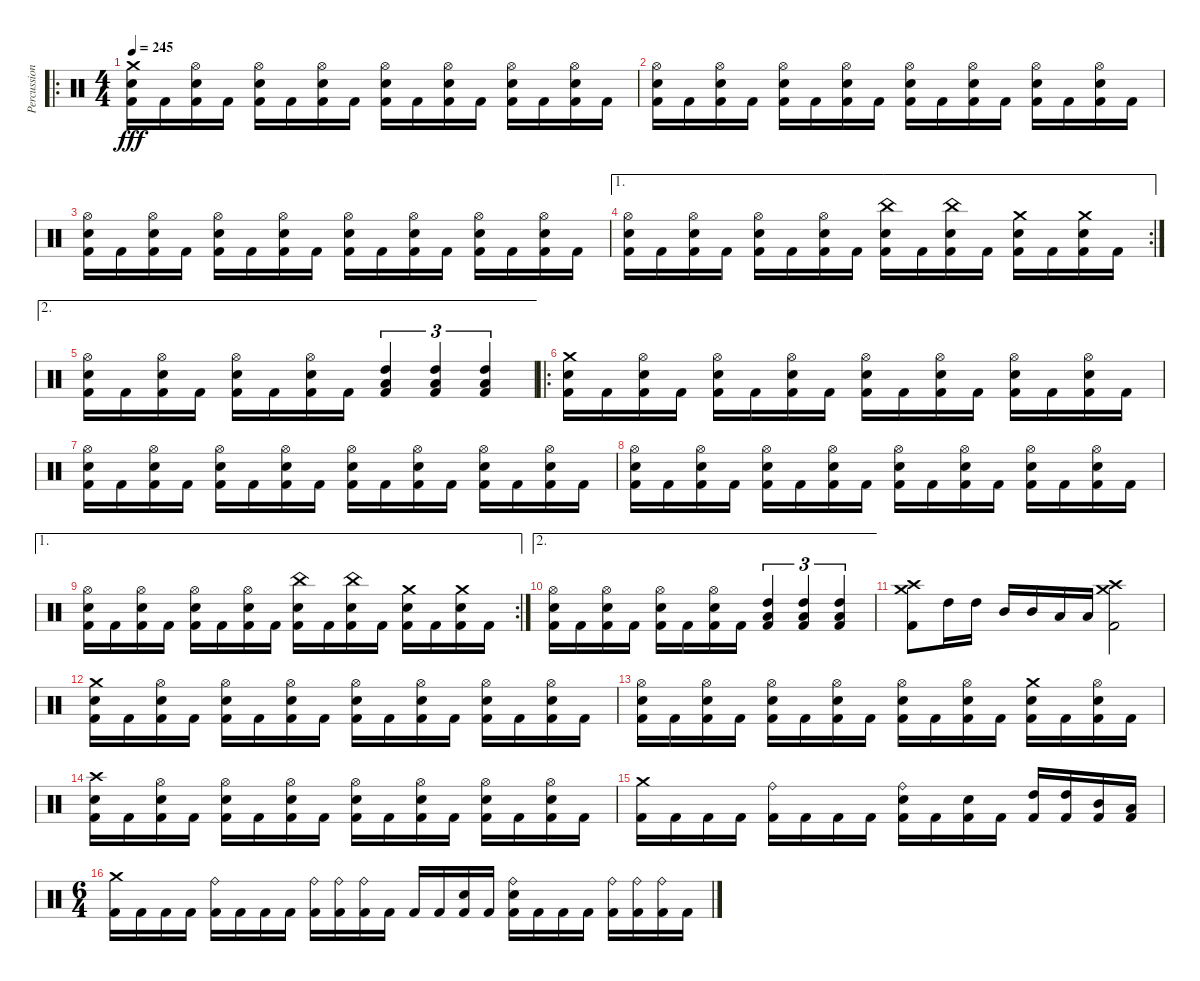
\track ("Percussion" "Percussion") {instrument percussion bank 177}
\staff {score}
\articulation defaults
\ro
\ts (4 4)
\tempo 245
\clef neutral
\ks c
("Crash medium (hit)" "Electric Snare (hit)" "Kick (hit) 2").16{dy fff} "Kick (hit) 2".16 ("Hi-Hat (open)" "Electric Snare (hit)" "Kick (hit) 2").16 "Kick (hit) 2".16 ("Hi-Hat (open)" "Electric Snare (hit)" "Kick (hit) 2").16 "Kick (hit) 2".16 ("Hi-Hat (open)" "Electric Snare (hit)" "Kick (hit) 2").16 "Kick (hit) 2".16 ("Hi-Hat (open)" "Electric Snare (hit)" "Kick (hit) 2").16 "Kick (hit) 2".16 ("Hi-Hat (open)" "Electric Snare (hit)" "Kick (hit) 2").16 "Kick (hit) 2".16 ("Hi-Hat (open)" "Electric Snare (hit)" "Kick (hit) 2").16 "Kick (hit) 2".16 ("Hi-Hat (open)" "Electric Snare (hit)" "Kick (hit) 2").16 "Kick (hit) 2".16 |
("Hi-Hat (open)" "Electric Snare (hit)" "Kick (hit) 2").16 "Kick (hit) 2".16 ("Hi-Hat (open)" "Electric Snare (hit)" "Kick (hit) 2").16 "Kick (hit) 2".16 ("Hi-Hat (open)" "Electric Snare (hit)" "Kick (hit) 2").16 "Kick (hit) 2".16 ("Hi-Hat (open)" "Electric Snare (hit)" "Kick (hit) 2").16 "Kick (hit) 2".16 ("Hi-Hat (open)" "Electric Snare (hit)" "Kick (hit) 2").16 "Kick (hit) 2".16 ("Hi-Hat (open)" "Electric Snare (hit)" "Kick (hit) 2").16 "Kick (hit) 2".16 ("Hi-Hat (open)" "Electric Snare (hit)" "Kick (hit) 2").16 "Kick (hit) 2".16 ("Hi-Hat (open)" "Electric Snare (hit)" "Kick (hit) 2").16 "Kick (hit) 2".16 |
("Hi-Hat (open)" "Electric Snare (hit)" "Kick (hit) 2").16 "Kick (hit) 2".16 ("Hi-Hat (open)" "Electric Snare (hit)" "Kick (hit) 2").16 "Kick (hit) 2".16 ("Hi-Hat (open)" "Electric Snare (hit)" "Kick (hit) 2").16 "Kick (hit) 2".16 ("Hi-Hat (open)" "Electric Snare (hit)" "Kick (hit) 2").16 "Kick (hit) 2".16 ("Hi-Hat (open)" "Electric Snare (hit)" "Kick (hit) 2").16 "Kick (hit) 2".16 ("Hi-Hat (open)" "Electric Snare (hit)" "Kick (hit) 2").16 "Kick (hit) 2".16 ("Hi-Hat (open)" "Electric Snare (hit)" "Kick (hit) 2").16 "Kick (hit) 2".16 ("Hi-Hat (open)" "Electric Snare (hit)" "Kick (hit) 2").16 "Kick (hit) 2".16 |
\ae 1
\rc 2
("Hi-Hat (open)" "Electric Snare (hit)" "Kick (hit) 2").16 "Kick (hit) 2".16 ("Hi-Hat (open)" "Electric Snare (hit)" "Kick (hit) 2").16 "Kick (hit) 2".16 ("Hi-Hat (open)" "Electric Snare (hit)" "Kick (hit) 2").16 "Kick (hit) 2".16 ("Hi-Hat (open)" "Electric Snare (hit)" "Kick (hit) 2").16 "Kick (hit) 2".16 ("China (hit)" "Electric Snare (hit)" "Kick (hit) 2").16 "Kick (hit) 2".16 ("China (hit)" "Electric Snare (hit)" "Kick (hit) 2").16 "Kick (hit) 2".16 ("Crash medium (hit)" "Electric Snare (hit)" "Kick (hit) 2").16 "Kick (hit) 2".16 ("Crash medium (hit)" "Electric Snare (hit)" "Kick (hit) 2").16 "Kick (hit) 2".16 |
\ae 2
("Hi-Hat (open)" "Electric Snare (hit)" "Kick (hit) 2").16 "Kick (hit) 2".16 ("Hi-Hat (open)" "Electric Snare (hit)" "Kick (hit) 2").16 "Kick (hit) 2".16 ("Hi-Hat (open)" "Electric Snare (hit)" "Kick (hit) 2").16 "Kick (hit) 2".16 ("Hi-Hat (open)" "Electric Snare (hit)" "Kick (hit) 2").16 "Kick (hit) 2".16 ("Low Tom (hit)" "Kick (hit) 2" "High Tom (hit)").4{tu (3 2)} ("Low Tom (hit)" "Kick (hit) 2" "High Tom (hit)").4{tu (3 2)} ("Low Tom (hit)" "Kick (hit) 2" "High Tom (hit)").4{tu (3 2)} |
\ro
("Crash medium (hit)" "Electric Snare (hit)" "Kick (hit) 2").16 "Kick (hit) 2".16 ("Hi-Hat (open)" "Electric Snare (hit)" "Kick (hit) 2").16 "Kick (hit) 2".16 ("Hi-Hat (open)" "Electric Snare (hit)" "Kick (hit) 2").16 "Kick (hit) 2".16 ("Hi-Hat (open)" "Electric Snare (hit)" "Kick (hit) 2").16 "Kick (hit) 2".16 ("Hi-Hat (open)" "Electric Snare (hit)" "Kick (hit) 2").16 "Kick (hit) 2".16 ("Hi-Hat (open)" "Electric Snare (hit)" "Kick (hit) 2").16 "Kick (hit) 2".16 ("Hi-Hat (open)" "Electric Snare (hit)" "Kick (hit) 2").16 "Kick (hit) 2".16 ("Hi-Hat (open)" "Electric Snare (hit)" "Kick (hit) 2").16 "Kick (hit) 2".16 |
("Hi-Hat (open)" "Electric Snare (hit)" "Kick (hit) 2").16 "Kick (hit) 2".16 ("Hi-Hat (open)" "Electric Snare (hit)" "Kick (hit) 2").16 "Kick (hit) 2".16 ("Hi-Hat (open)" "Electric Snare (hit)" "Kick (hit) 2").16 "Kick (hit) 2".16 ("Hi-Hat (open)" "Electric Snare (hit)" "Kick (hit) 2").16 "Kick (hit) 2".16 ("Hi-Hat (open)" "Electric Snare (hit)" "Kick (hit) 2").16 "Kick (hit) 2".16 ("Hi-Hat (open)" "Electric Snare (hit)" "Kick (hit) 2").16 "Kick (hit) 2".16 ("Hi-Hat (open)" "Electric Snare (hit)" "Kick (hit) 2").16 "Kick (hit) 2".16 ("Hi-Hat (open)" "Electric Snare (hit)" "Kick (hit) 2").16 "Kick (hit) 2".16 |
("Hi-Hat (open)" "Electric Snare (hit)" "Kick (hit) 2").16 "Kick (hit) 2".16 ("Hi-Hat (open)" "Electric Snare (hit)" "Kick (hit) 2").16 "Kick (hit) 2".16 ("Hi-Hat (open)" "Electric Snare (hit)" "Kick (hit) 2").16 "Kick (hit) 2".16 ("Hi-Hat (open)" "Electric Snare (hit)" "Kick (hit) 2").16 "Kick (hit) 2".16 ("Hi-Hat (open)" "Electric Snare (hit)" "Kick (hit) 2").16 "Kick (hit) 2".16 ("Hi-Hat (open)" "Electric Snare (hit)" "Kick (hit) 2").16 "Kick (hit) 2".16 ("Hi-Hat (open)" "Electric Snare (hit)" "Kick (hit) 2").16 "Kick (hit) 2".16 ("Hi-Hat (open)" "Electric Snare (hit)" "Kick (hit) 2").16 "Kick (hit) 2".16 |
\ae 1
\rc 2
("Hi-Hat (open)" "Electric Snare (hit)" "Kick (hit) 2").16 "Kick (hit) 2".16 ("Hi-Hat (open)" "Electric Snare (hit)" "Kick (hit) 2").16 "Kick (hit) 2".16 ("Hi-Hat (open)" "Electric Snare (hit)" "Kick (hit) 2").16 "Kick (hit) 2".16 ("Hi-Hat (open)" "Electric Snare (hit)" "Kick (hit) 2").16 "Kick (hit) 2".16 ("China (hit)" "Electric Snare (hit)" "Kick (hit) 2").16 "Kick (hit) 2".16 ("China (hit)" "Electric Snare (hit)" "Kick (hit) 2").16 "Kick (hit) 2".16 ("Crash medium (hit)" "Electric Snare (hit)" "Kick (hit) 2").16 "Kick (hit) 2".16 ("Crash medium (hit)" "Electric Snare (hit)" "Kick (hit) 2").16 "Kick (hit) 2".16 |
\ae 2
("Hi-Hat (open)" "Electric Snare (hit)" "Kick (hit) 2").16 "Kick (hit) 2".16 ("Hi-Hat (open)" "Electric Snare (hit)" "Kick (hit) 2").16 "Kick (hit) 2".16 ("Hi-Hat (open)" "Electric Snare (hit)" "Kick (hit) 2").16 "Kick (hit) 2".16 ("Hi-Hat (open)" "Electric Snare (hit)" "Kick (hit) 2").16 "Kick (hit) 2".16 ("Low Tom (hit)" "Kick (hit) 2" "High Tom (hit)").4{tu (3 2)} ("Low Tom (hit)" "Kick (hit) 2" "High Tom (hit)").4{tu (3 2)} ("Low Tom (hit)" "Kick (hit) 2" "High Tom (hit)").4{tu (3 2)} |
("Crash medium (hit)" "Crash high (hit)" "Kick (hit) 2").8 "High Tom (hit)".16 "High Tom (hit)".16 "Mid Tom (hit)".16 "Mid Tom (hit)".16 "Low Tom (hit)".16 "Low Tom (hit)".16 ("Crash medium (hit)" "Crash high (hit)" "Kick (hit) 2").2 |
("Crash medium (hit)" "Electric Snare (hit)" "Kick (hit) 2").16 "Kick (hit) 2".16 ("Hi-Hat (open)" "Electric Snare (hit)" "Kick (hit) 2").16 "Kick (hit) 2".16 ("Hi-Hat (open)" "Electric Snare (hit)" "Kick (hit) 2").16 "Kick (hit) 2".16 ("Hi-Hat (open)" "Electric Snare (hit)" "Kick (hit) 2").16 "Kick (hit) 2".16 ("Hi-Hat (open)" "Electric Snare (hit)" "Kick (hit) 2").16 "Kick (hit) 2".16 ("Hi-Hat (open)" "Electric Snare (hit)" "Kick (hit) 2").16 "Kick (hit) 2".16 ("Hi-Hat (open)" "Electric Snare (hit)" "Kick (hit) 2").16 "Kick (hit) 2".16 ("Hi-Hat (open)" "Electric Snare (hit)" "Kick (hit) 2").16 "Kick (hit) 2".16 |
("Hi-Hat (open)" "Electric Snare (hit)" "Kick (hit) 2").16 "Kick (hit) 2".16 ("Hi-Hat (open)" "Electric Snare (hit)" "Kick (hit) 2").16 "Kick (hit) 2".16 ("Hi-Hat (open)" "Electric Snare (hit)" "Kick (hit) 2").16 "Kick (hit) 2".16 ("Hi-Hat (open)" "Electric Snare (hit)" "Kick (hit) 2").16 "Kick (hit) 2".16 ("Hi-Hat (open)" "Electric Snare (hit)" "Kick (hit) 2").16 "Kick (hit) 2".16 ("Hi-Hat (open)" "Electric Snare (hit)" "Kick (hit) 2").16 "Kick (hit) 2".16 ("Crash medium (hit)" "Electric Snare (hit)" "Kick (hit) 2").16 "Kick (hit) 2".16 ("Hi-Hat (open)" "Electric Snare (hit)" "Kick (hit) 2").16 "Kick (hit) 2".16 |
("Crash high (hit)" "Electric Snare (hit)" "Kick (hit) 2").16 "Kick (hit) 2".16 ("Hi-Hat (open)" "Electric Snare (hit)" "Kick (hit) 2").16 "Kick (hit) 2".16 ("Hi-Hat (open)" "Electric Snare (hit)" "Kick (hit) 2").16 "Kick (hit) 2".16 ("Hi-Hat (open)" "Electric Snare (hit)" "Kick (hit) 2").16 "Kick (hit) 2".16 ("Hi-Hat (open)" "Electric Snare (hit)" "Kick (hit) 2").16 "Kick (hit) 2".16 ("Hi-Hat (open)" "Electric Snare (hit)" "Kick (hit) 2").16 "Kick (hit) 2".16 ("Hi-Hat (open)" "Electric Snare (hit)" "Kick (hit) 2").16 "Kick (hit) 2".16 ("Hi-Hat (open)" "Electric Snare (hit)" "Kick (hit) 2").16 "Kick (hit) 2".16 |
("Crash medium (hit)" "Kick (hit) 2").16 "Kick (hit) 2".16 "Kick (hit) 2".16 "Kick (hit) 2".16 ("Ride (bell)" "Kick (hit) 2").16 "Kick (hit) 2".16 "Kick (hit) 2".16 "Kick (hit) 2".16 ("Ride (bell)" "Electric Snare (hit)" "Kick (hit) 2").16 "Kick (hit) 2".16 ("Electric Snare (hit)" "Kick (hit) 2").16 "Kick (hit) 2".16 ("High Tom (hit)" "Kick (hit) 2").16 ("High Tom (hit)" "Kick (hit) 2").16 ("Mid Tom (hit)" "Kick (hit) 2").16 ("Low Tom (hit)" "Kick (hit) 2").16 |
\ts (6 4)
("Crash medium (hit)" "Kick (hit) 2").16 "Kick (hit) 2".16 "Kick (hit) 2".16 "Kick (hit) 2".16 ("Ride (bell)" "Kick (hit) 2").16 "Kick (hit) 2".16 "Kick (hit) 2".16 "Kick (hit) 2".16 ("Ride (bell)" "Kick (hit) 2").16 ("Ride (bell)" "Kick (hit) 2").16 ("Ride (bell)" "Kick (hit) 2").16 "Kick (hit) 2".16 "Kick (hit) 2".16 "Kick (hit) 2".16 ("Electric Snare (hit)" "Kick (hit) 2").16 "Kick (hit) 2".16 ("Ride (bell)" "Electric Snare (hit)" "Kick (hit) 2").16 "Kick (hit) 2".16 "Kick (hit) 2".16 "Kick (hit) 2".16 ("Ride (bell)" "Kick (hit) 2").16 ("Ride (bell)" "Kick (hit) 2").16 ("Ride (bell)" "Kick (hit) 2").16 "Kick (hit) 2".16
